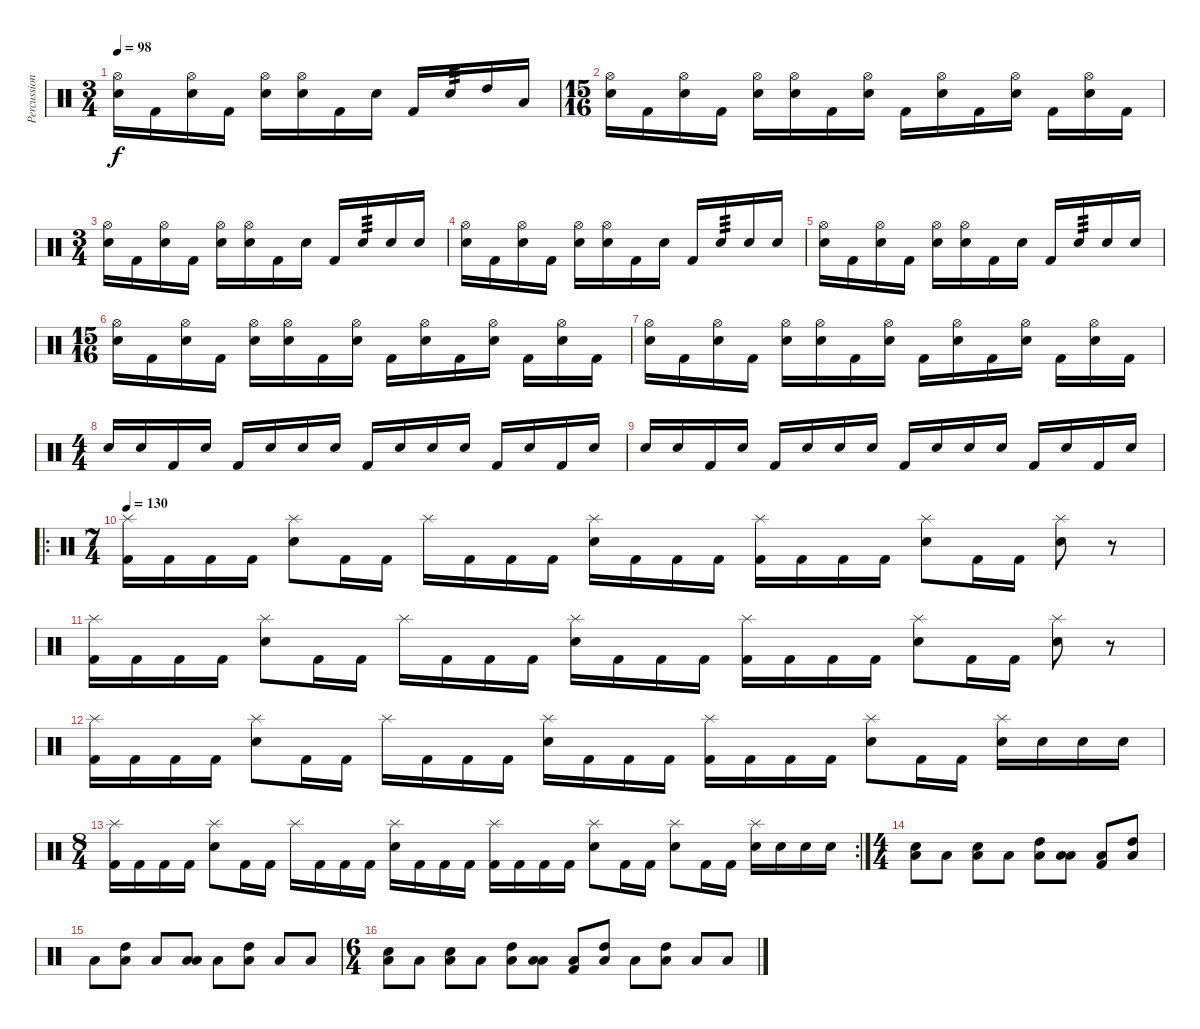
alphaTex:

\track ("Percussion" "Percussion") {instrument percussion}
\staff {score}
\articulation defaults
\ts (3 4)
\tempo 98
\clef neutral
\ks c
("Hi-Hat (open)" "Electric Snare (hit)").16{dy f} "Kick (hit) 2".16 ("Hi-Hat (open)" "Electric Snare (hit)").16 "Kick (hit) 2".16 ("Hi-Hat (open)" "Electric Snare (hit)").16 ("Hi-Hat (open)" "Electric Snare (hit)").16 "Kick (hit) 2".16 "Electric Snare (hit)".16 "Kick (hit) 2".16 "Electric Snare (hit)".16{tp 3} "High Tom (hit)".16 "Low Tom (hit)".16 |
\ts (15 16)
("Hi-Hat (open)" "Electric Snare (hit)").16 "Kick (hit) 2".16 ("Hi-Hat (open)" "Electric Snare (hit)").16 "Kick (hit) 2".16 ("Hi-Hat (open)" "Electric Snare (hit)").16 ("Hi-Hat (open)" "Electric Snare (hit)").16 "Kick (hit) 2".16 ("Hi-Hat (open)" "Electric Snare (hit)").16 "Kick (hit) 2".16 ("Hi-Hat (open)" "Electric Snare (hit)").16 "Kick (hit) 2".16 ("Hi-Hat (open)" "Electric Snare (hit)").16 "Kick (hit) 2".16 ("Hi-Hat (open)" "Electric Snare (hit)").16 "Kick (hit) 2".16 |
\ts (3 4)
("Hi-Hat (open)" "Electric Snare (hit)").16 "Kick (hit) 2".16 ("Hi-Hat (open)" "Electric Snare (hit)").16 "Kick (hit) 2".16 ("Hi-Hat (open)" "Electric Snare (hit)").16 ("Hi-Hat (open)" "Electric Snare (hit)").16 "Kick (hit) 2".16 "Electric Snare (hit)".16 "Kick (hit) 2".16 "Electric Snare (hit)".16{tp 3} "Electric Snare (hit)".16 "Electric Snare (hit)".16 |
("Hi-Hat (open)" "Electric Snare (hit)").16 "Kick (hit) 2".16 ("Hi-Hat (open)" "Electric Snare (hit)").16 "Kick (hit) 2".16 ("Hi-Hat (open)" "Electric Snare (hit)").16 ("Hi-Hat (open)" "Electric Snare (hit)").16 "Kick (hit) 2".16 "Electric Snare (hit)".16 "Kick (hit) 2".16 "Electric Snare (hit)".16{tp 3} "Electric Snare (hit)".16 "Electric Snare (hit)".16 |
("Hi-Hat (open)" "Electric Snare (hit)").16 "Kick (hit) 2".16 ("Hi-Hat (open)" "Electric Snare (hit)").16 "Kick (hit) 2".16 ("Hi-Hat (open)" "Electric Snare (hit)").16 ("Hi-Hat (open)" "Electric Snare (hit)").16 "Kick (hit) 2".16 "Electric Snare (hit)".16 "Kick (hit) 2".16 "Electric Snare (hit)".16{tp 3} "Electric Snare (hit)".16 "Electric Snare (hit)".16 |
\ts (15 16)
("Hi-Hat (open)" "Electric Snare (hit)").16 "Kick (hit) 2".16 ("Hi-Hat (open)" "Electric Snare (hit)").16 "Kick (hit) 2".16 ("Hi-Hat (open)" "Electric Snare (hit)").16 ("Hi-Hat (open)" "Electric Snare (hit)").16 "Kick (hit) 2".16 ("Hi-Hat (open)" "Electric Snare (hit)").16 "Kick (hit) 2".16 ("Hi-Hat (open)" "Electric Snare (hit)").16 "Kick (hit) 2".16 ("Hi-Hat (open)" "Electric Snare (hit)").16 "Kick (hit) 2".16 ("Hi-Hat (open)" "Electric Snare (hit)").16 "Kick (hit) 2".16 |
("Hi-Hat (open)" "Electric Snare (hit)").16 "Kick (hit) 2".16 ("Hi-Hat (open)" "Electric Snare (hit)").16 "Kick (hit) 2".16 ("Hi-Hat (open)" "Electric Snare (hit)").16 ("Hi-Hat (open)" "Electric Snare (hit)").16 "Kick (hit) 2".16 ("Hi-Hat (open)" "Electric Snare (hit)").16 "Kick (hit) 2".16 ("Hi-Hat (open)" "Electric Snare (hit)").16 "Kick (hit) 2".16 ("Hi-Hat (open)" "Electric Snare (hit)").16 "Kick (hit) 2".16 ("Hi-Hat (open)" "Electric Snare (hit)").16 "Kick (hit) 2".16 |
\ts (4 4)
"Electric Snare (hit)".16 "Electric Snare (hit)".16 "Kick (hit) 2".16 "Electric Snare (hit)".16 "Kick (hit) 2".16 "Electric Snare (hit)".16 "Electric Snare (hit)".16 "Electric Snare (hit)".16 "Kick (hit) 2".16 "Electric Snare (hit)".16 "Electric Snare (hit)".16 "Electric Snare (hit)".16 "Kick (hit) 2".16 "Electric Snare (hit)".16 "Kick (hit) 2".16 "Electric Snare (hit)".16 |
"Electric Snare (hit)".16 "Electric Snare (hit)".16 "Kick (hit) 2".16 "Electric Snare (hit)".16 "Kick (hit) 2".16 "Electric Snare (hit)".16 "Electric Snare (hit)".16 "Electric Snare (hit)".16 "Kick (hit) 2".16 "Electric Snare (hit)".16 "Electric Snare (hit)".16 "Electric Snare (hit)".16 "Kick (hit) 2".16 "Electric Snare (hit)".16 "Kick (hit) 2".16 "Electric Snare (hit)".16 |
\ro
\ts (7 4)
\tempo 130
("Splash (hit)" "Kick (hit) 2").16 "Kick (hit) 2".16 "Kick (hit) 2".16 "Kick (hit) 2".16 ("Splash (hit)" "Electric Snare (hit)").8 "Kick (hit) 2".16 "Kick (hit) 2".16 "Splash (hit)".16 "Kick (hit) 2".16 "Kick (hit) 2".16 "Kick (hit) 2".16 ("Splash (hit)" "Electric Snare (hit)").16 "Kick (hit) 2".16 "Kick (hit) 2".16 "Kick (hit) 2".16 ("Splash (hit)" "Kick (hit) 2").16 "Kick (hit) 2".16 "Kick (hit) 2".16 "Kick (hit) 2".16 ("Splash (hit)" "Electric Snare (hit)").8 "Kick (hit) 2".16 "Kick (hit) 2".16 ("Splash (hit)" "Electric Snare (hit)").8 r.8 |
("Splash (hit)" "Kick (hit) 2").16 "Kick (hit) 2".16 "Kick (hit) 2".16 "Kick (hit) 2".16 ("Splash (hit)" "Electric Snare (hit)").8 "Kick (hit) 2".16 "Kick (hit) 2".16 "Splash (hit)".16 "Kick (hit) 2".16 "Kick (hit) 2".16 "Kick (hit) 2".16 ("Splash (hit)" "Electric Snare (hit)").16 "Kick (hit) 2".16 "Kick (hit) 2".16 "Kick (hit) 2".16 ("Splash (hit)" "Kick (hit) 2").16 "Kick (hit) 2".16 "Kick (hit) 2".16 "Kick (hit) 2".16 ("Splash (hit)" "Electric Snare (hit)").8 "Kick (hit) 2".16 "Kick (hit) 2".16 ("Splash (hit)" "Electric Snare (hit)").8 r.8 |
("Splash (hit)" "Kick (hit) 2").16 "Kick (hit) 2".16 "Kick (hit) 2".16 "Kick (hit) 2".16 ("Splash (hit)" "Electric Snare (hit)").8 "Kick (hit) 2".16 "Kick (hit) 2".16 "Splash (hit)".16 "Kick (hit) 2".16 "Kick (hit) 2".16 "Kick (hit) 2".16 ("Splash (hit)" "Electric Snare (hit)").16 "Kick (hit) 2".16 "Kick (hit) 2".16 "Kick (hit) 2".16 ("Splash (hit)" "Kick (hit) 2").16 "Kick (hit) 2".16 "Kick (hit) 2".16 "Kick (hit) 2".16 ("Splash (hit)" "Electric Snare (hit)").8 "Kick (hit) 2".16 "Kick (hit) 2".16 ("Splash (hit)" "Electric Snare (hit)").16 "Electric Snare (hit)".16 "Electric Snare (hit)".16 "Electric Snare (hit)".16 |
\rc 2
\ts (8 4)
("Splash (hit)" "Kick (hit) 2").16 "Kick (hit) 2".16 "Kick (hit) 2".16 "Kick (hit) 2".16 ("Splash (hit)" "Electric Snare (hit)").8 "Kick (hit) 2".16 "Kick (hit) 2".16 "Splash (hit)".16 "Kick (hit) 2".16 "Kick (hit) 2".16 "Kick (hit) 2".16 ("Splash (hit)" "Electric Snare (hit)").16 "Kick (hit) 2".16 "Kick (hit) 2".16 "Kick (hit) 2".16 ("Splash (hit)" "Kick (hit) 2").16 "Kick (hit) 2".16 "Kick (hit) 2".16 "Kick (hit) 2".16 ("Splash (hit)" "Electric Snare (hit)").8 "Kick (hit) 2".16 "Kick (hit) 2".16 ("Splash (hit)" "Electric Snare (hit)").8 "Kick (hit) 2".16 "Kick (hit) 2".16 ("Splash (hit)" "Electric Snare (hit)").16 "Electric Snare (hit)".16 "Electric Snare (hit)".16 "Electric Snare (hit)".16 |
\ts (4 4)
("Low Floor Tom (hit)" "Electric Snare (hit)").8{volume 6} "Low Floor Tom (hit)".8 ("Low Floor Tom (hit)" "Electric Snare (hit)").8 "Low Floor Tom (hit)".8 ("Low Floor Tom (hit)" "High Tom (hit)").8 ("Low Floor Tom (hit)" "Low Tom (hit)").8 ("Low Floor Tom (hit)" "Kick (hit) 2").8 ("Low Floor Tom (hit)" "High Tom (hit)").8 |
"Low Floor Tom (hit)".8 ("Low Floor Tom (hit)" "High Tom (hit)").8 "Low Floor Tom (hit)".8 ("Low Floor Tom (hit)" "Low Tom (hit)").8 "Low Floor Tom (hit)".8 ("Low Floor Tom (hit)" "High Tom (hit)").8 "Low Floor Tom (hit)".8 "Low Floor Tom (hit)".8 |
\ts (6 4)
("Low Floor Tom (hit)" "Electric Snare (hit)").8 "Low Floor Tom (hit)".8 ("Low Floor Tom (hit)" "Electric Snare (hit)").8 "Low Floor Tom (hit)".8 ("Low Floor Tom (hit)" "High Tom (hit)").8 ("Low Floor Tom (hit)" "Low Tom (hit)").8 ("Low Floor Tom (hit)" "Kick (hit) 2").8 ("Low Floor Tom (hit)" "High Tom (hit)").8 "Low Floor Tom (hit)".8 ("Low Floor Tom (hit)" "High Tom (hit)").8 "Low Floor Tom (hit)".8 "Low Floor Tom (hit)".8
